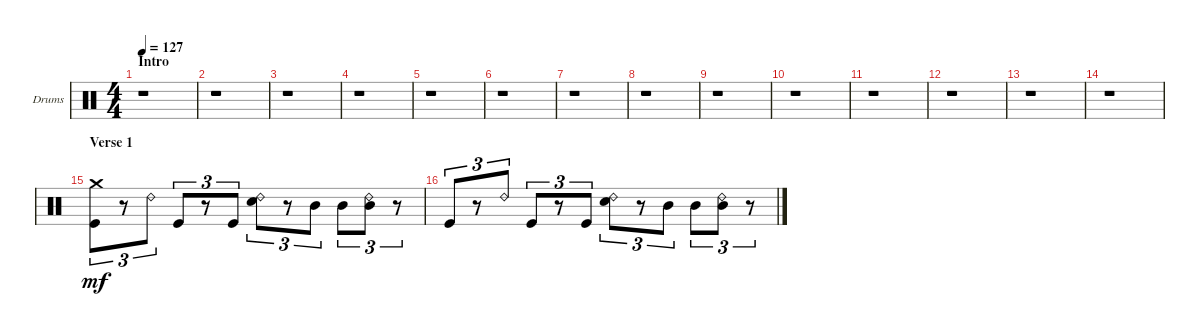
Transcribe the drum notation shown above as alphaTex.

\bracketExtendMode groupsimilarinstruments
\firstSystemTrackNameOrientation horizontal
\otherSystemsTrackNameOrientation horizontal
\track ("Drumkit" "Drums") {instrument percussion}
\staff {score}
\articulation defaults
\ts (4 4)
\section ("" "Intro")
\tempo 127
\clef neutral
\ks c
r.1{dy mf} |
r.1 |
r.1 |
r.1 |
r.1 |
r.1 |
r.1 |
r.1 |
r.1 |
r.1 |
r.1 |
r.1 |
r.1 |
r.1 |
\section ("" "Verse 1")
("Kick (hit)" "Crash medium (hit)").8{tu (3 2)} r.8{tu (3 2)} "Ride (bell) 2".8{tu (3 2)} "Kick (hit)".8{tu (3 2)} r.8{tu (3 2)} "Kick (hit)".8{tu (3 2)} ("Ride (bell) 2" "Snare (hit) 2").8{tu (3 2)} r.8{tu (3 2)} "Mid Tom (hit)".8{tu (3 2)} "Mid Tom (hit)".8{tu (3 2)} ("Ride (bell) 2" "Mid Tom (hit)").8{tu (3 2)} r.8{tu (3 2)} |
"Kick (hit)".8{tu (3 2)} r.8{tu (3 2)} "Ride (bell) 2".8{tu (3 2)} "Kick (hit)".8{tu (3 2)} r.8{tu (3 2)} "Kick (hit)".8{tu (3 2)} ("Ride (bell) 2" "Snare (hit) 2").8{tu (3 2)} r.8{tu (3 2)} "Mid Tom (hit)".8{tu (3 2)} "Mid Tom (hit)".8{tu (3 2)} ("Ride (bell) 2" "Mid Tom (hit)").8{tu (3 2)} r.8{tu (3 2)}
